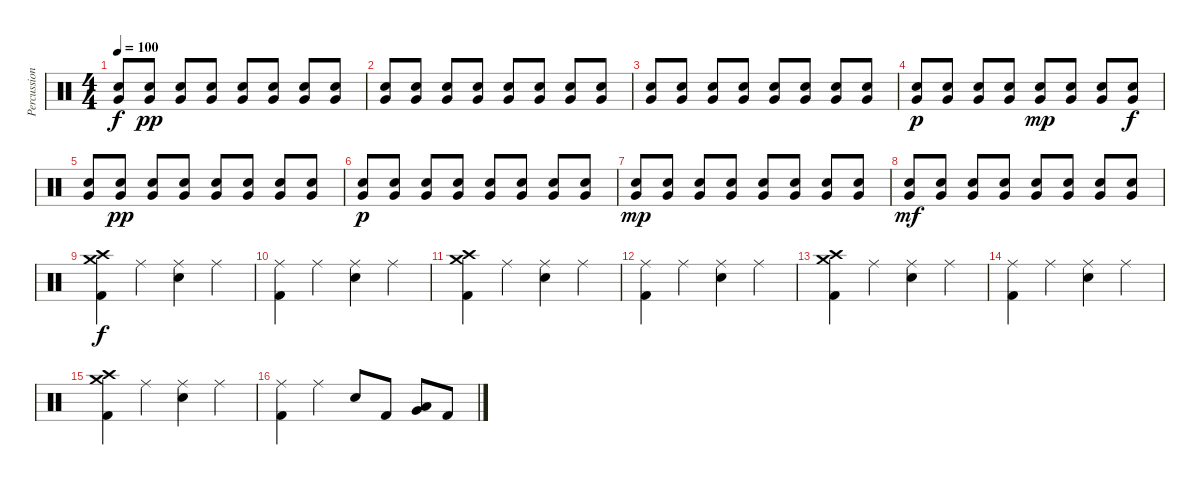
\track ("Percussion" "Percussion") {instrument percussion}
\staff {score}
\articulation defaults
\ts (4 4)
\tempo 100
\clef neutral
\ks c
("Electric Snare (hit)" "Very Low Tom (hit)").8{dy f} ("Electric Snare (hit)" "Very Low Tom (hit)").8{dy pp} ("Electric Snare (hit)" "Very Low Tom (hit)").8 ("Electric Snare (hit)" "Very Low Tom (hit)").8 ("Electric Snare (hit)" "Very Low Tom (hit)").8 ("Electric Snare (hit)" "Very Low Tom (hit)").8 ("Electric Snare (hit)" "Very Low Tom (hit)").8 ("Electric Snare (hit)" "Very Low Tom (hit)").8 |
("Electric Snare (hit)" "Very Low Tom (hit)").8 ("Electric Snare (hit)" "Very Low Tom (hit)").8 ("Electric Snare (hit)" "Very Low Tom (hit)").8 ("Electric Snare (hit)" "Very Low Tom (hit)").8 ("Electric Snare (hit)" "Very Low Tom (hit)").8 ("Electric Snare (hit)" "Very Low Tom (hit)").8 ("Electric Snare (hit)" "Very Low Tom (hit)").8 ("Electric Snare (hit)" "Very Low Tom (hit)").8 |
("Electric Snare (hit)" "Very Low Tom (hit)").8 ("Electric Snare (hit)" "Very Low Tom (hit)").8 ("Electric Snare (hit)" "Very Low Tom (hit)").8 ("Electric Snare (hit)" "Very Low Tom (hit)").8 ("Electric Snare (hit)" "Very Low Tom (hit)").8 ("Electric Snare (hit)" "Very Low Tom (hit)").8 ("Electric Snare (hit)" "Very Low Tom (hit)").8 ("Electric Snare (hit)" "Very Low Tom (hit)").8 |
("Electric Snare (hit)" "Very Low Tom (hit)").8{dy p} ("Electric Snare (hit)" "Very Low Tom (hit)").8 ("Electric Snare (hit)" "Very Low Tom (hit)").8 ("Electric Snare (hit)" "Very Low Tom (hit)").8 ("Electric Snare (hit)" "Very Low Tom (hit)").8{dy mp} ("Electric Snare (hit)" "Very Low Tom (hit)").8 ("Electric Snare (hit)" "Very Low Tom (hit)").8 ("Electric Snare (hit)" "Very Low Tom (hit)").8{dy f} |
("Electric Snare (hit)" "Very Low Tom (hit)").8 ("Electric Snare (hit)" "Very Low Tom (hit)").8{dy pp} ("Electric Snare (hit)" "Very Low Tom (hit)").8 ("Electric Snare (hit)" "Very Low Tom (hit)").8 ("Electric Snare (hit)" "Very Low Tom (hit)").8 ("Electric Snare (hit)" "Very Low Tom (hit)").8 ("Electric Snare (hit)" "Very Low Tom (hit)").8 ("Electric Snare (hit)" "Very Low Tom (hit)").8 |
("Electric Snare (hit)" "Very Low Tom (hit)").8{dy p} ("Electric Snare (hit)" "Very Low Tom (hit)").8 ("Electric Snare (hit)" "Very Low Tom (hit)").8 ("Electric Snare (hit)" "Very Low Tom (hit)").8 ("Electric Snare (hit)" "Very Low Tom (hit)").8 ("Electric Snare (hit)" "Very Low Tom (hit)").8 ("Electric Snare (hit)" "Very Low Tom (hit)").8 ("Electric Snare (hit)" "Very Low Tom (hit)").8 |
("Electric Snare (hit)" "Very Low Tom (hit)").8{dy mp} ("Electric Snare (hit)" "Very Low Tom (hit)").8 ("Electric Snare (hit)" "Very Low Tom (hit)").8 ("Electric Snare (hit)" "Very Low Tom (hit)").8 ("Electric Snare (hit)" "Very Low Tom (hit)").8 ("Electric Snare (hit)" "Very Low Tom (hit)").8 ("Electric Snare (hit)" "Very Low Tom (hit)").8 ("Electric Snare (hit)" "Very Low Tom (hit)").8 |
("Electric Snare (hit)" "Very Low Tom (hit)").8{dy mf} ("Electric Snare (hit)" "Very Low Tom (hit)").8 ("Electric Snare (hit)" "Very Low Tom (hit)").8 ("Electric Snare (hit)" "Very Low Tom (hit)").8 ("Electric Snare (hit)" "Very Low Tom (hit)").8 ("Electric Snare (hit)" "Very Low Tom (hit)").8 ("Electric Snare (hit)" "Very Low Tom (hit)").8 ("Electric Snare (hit)" "Very Low Tom (hit)").8 |
("Crash medium (hit)" "Crash high (hit)" "Kick (hit) 2").4{dy f} "Ride (middle)".4 ("Ride (middle)" "Electric Snare (hit)").4 "Ride (middle)".4 |
("Ride (middle)" "Kick (hit) 2").4 "Ride (middle)".4 ("Ride (middle)" "Electric Snare (hit)").4 "Ride (middle)".4 |
("Crash medium (hit)" "Crash high (hit)" "Kick (hit) 2").4 "Ride (middle)".4 ("Ride (middle)" "Electric Snare (hit)").4 "Ride (middle)".4 |
("Ride (middle)" "Kick (hit) 2").4 "Ride (middle)".4 ("Ride (middle)" "Electric Snare (hit)").4 "Ride (middle)".4 |
("Crash medium (hit)" "Crash high (hit)" "Kick (hit) 2").4 "Ride (middle)".4 ("Ride (middle)" "Electric Snare (hit)").4 "Ride (middle)".4 |
("Ride (middle)" "Kick (hit) 2").4 "Ride (middle)".4 ("Ride (middle)" "Electric Snare (hit)").4 "Ride (middle)".4 |
("Crash medium (hit)" "Crash high (hit)" "Kick (hit) 2").4 "Ride (middle)".4 ("Ride (middle)" "Electric Snare (hit)").4 "Ride (middle)".4 |
("Ride (middle)" "Kick (hit) 2").4 "Ride (middle)".4 "Electric Snare (hit)".8 "Kick (hit) 2".8 ("Very Low Tom (hit)" "Low Floor Tom (hit)").8 "Kick (hit) 2".8
